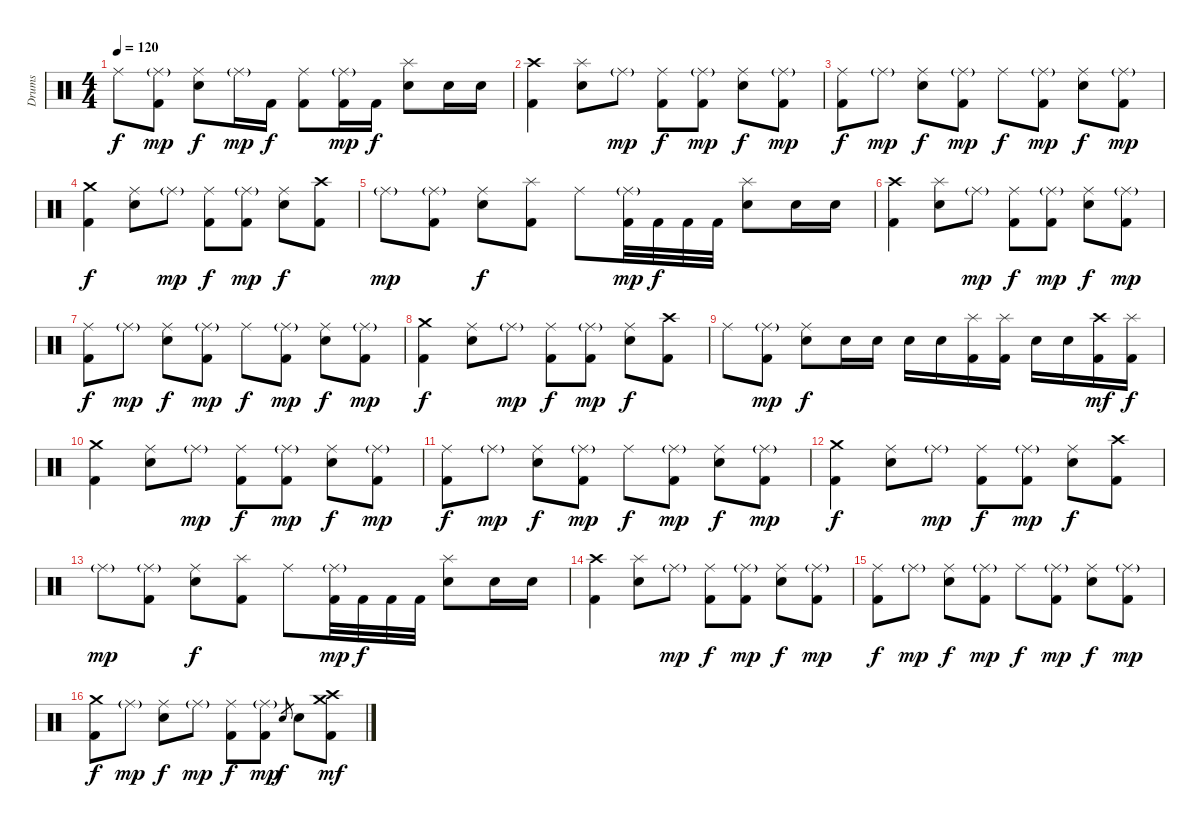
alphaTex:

\track ("Drums" "Drums") {instrument percussion}
\staff {score}
\articulation defaults
\ts (4 4)
\tempo 120
\clef neutral
\ks c "Ride (middle)".8{dy f}
("Ride (middle)"{g} "Kick (hit) 2").8{dy mp} ("Ride (middle)" "Snare (hit) 2").8{dy f} "Ride (middle)"{g}.16{dy mp} "Kick (hit) 2".16{dy f} ("Ride (middle)" "Kick (hit) 2").8 ("Ride (middle)"{g} "Kick (hit) 2").16{dy mp} "Kick (hit) 2".16{dy f} ("Splash (hit)" "Snare (hit) 2").8 "Snare (hit) 2".16 "Snare (hit) 2".16 |
("Crash high (hit)" "Kick (hit) 2").4 ("Splash (hit)" "Snare (hit) 2").8 "Ride (middle)"{g}.8{dy mp} ("Ride (middle)" "Kick (hit) 2").8{dy f} ("Ride (middle)"{g} "Kick (hit) 2").8{dy mp} ("Ride (middle)" "Snare (hit) 2").8{dy f} ("Ride (middle)"{g} "Kick (hit) 2").8{dy mp} |
("Ride (middle)" "Kick (hit) 2").8{dy f} "Ride (middle)"{g}.8{dy mp} ("Ride (middle)" "Snare (hit) 2").8{dy f} ("Ride (middle)"{g} "Kick (hit) 2").8{dy mp} "Ride (middle)".8{dy f} ("Ride (middle)"{g} "Kick (hit) 2").8{dy mp} ("Ride (middle)" "Snare (hit) 2").8{dy f} ("Ride (middle)"{g} "Kick (hit) 2").8{dy mp} |
("Crash medium (hit)" "Kick (hit) 2").4{dy f} ("Ride (middle)" "Snare (hit) 2").8 "Ride (middle)"{g}.8{dy mp} ("Ride (middle)" "Kick (hit) 2").8{dy f} ("Ride (middle)"{g} "Kick (hit) 2").8{dy mp} ("Ride (middle)" "Snare (hit) 2").8{dy f} ("Crash high (hit)" "Kick (hit) 2").8 |
"Ride (middle)"{g}.8{dy mp} ("Ride (middle)"{g} "Kick (hit) 2").8 ("Ride (middle)" "Snare (hit) 2").8{dy f} ("Splash (hit)" "Kick (hit) 2").8 "Ride (middle)".8 ("Ride (middle)"{g} "Kick (hit) 2").32{dy mp} "Kick (hit) 2".32{dy f} "Kick (hit) 2".32 "Kick (hit) 2".32 ("Splash (hit)" "Snare (hit) 2").8 "Snare (hit) 2".16 "Snare (hit) 2".16 |
("Crash high (hit)" "Kick (hit) 2").4 ("Splash (hit)" "Snare (hit) 2").8 "Ride (middle)"{g}.8{dy mp} ("Ride (middle)" "Kick (hit) 2").8{dy f} ("Ride (middle)"{g} "Kick (hit) 2").8{dy mp} ("Ride (middle)" "Snare (hit) 2").8{dy f} ("Ride (middle)"{g} "Kick (hit) 2").8{dy mp} |
("Ride (middle)" "Kick (hit) 2").8{dy f} "Ride (middle)"{g}.8{dy mp} ("Ride (middle)" "Snare (hit) 2").8{dy f} ("Ride (middle)"{g} "Kick (hit) 2").8{dy mp} "Ride (middle)".8{dy f} ("Ride (middle)"{g} "Kick (hit) 2").8{dy mp} ("Ride (middle)" "Snare (hit) 2").8{dy f} ("Ride (middle)"{g} "Kick (hit) 2").8{dy mp} |
("Crash medium (hit)" "Kick (hit) 2").4{dy f} ("Ride (middle)" "Snare (hit) 2").8 "Ride (middle)"{g}.8{dy mp} ("Ride (middle)" "Kick (hit) 2").8{dy f} ("Ride (middle)"{g} "Kick (hit) 2").8{dy mp} ("Ride (middle)" "Snare (hit) 2").8{dy f} ("Crash high (hit)" "Kick (hit) 2").8 |
"Ride (middle)".8 ("Ride (middle)"{g} "Kick (hit) 2").8{dy mp} ("Ride (middle)" "Snare (hit) 2").8{dy f} "Snare (hit) 2".16 "Snare (hit) 2".16 "Snare (hit) 2".16 "Snare (hit) 2".16 ("Splash (hit)" "Kick (hit) 2").16 ("Splash (hit)" "Kick (hit) 2").16 "Snare (hit) 2".16 "Snare (hit) 2".16 ("Crash high (hit)" "Kick (hit) 2").16{dy mf} ("Splash (hit)" "Kick (hit) 2").16{dy f} |
("Crash medium (hit)" "Kick (hit) 2").4 ("Ride (middle)" "Snare (hit) 2").8 "Ride (middle)"{g}.8{dy mp} ("Ride (middle)" "Kick (hit) 2").8{dy f} ("Ride (middle)"{g} "Kick (hit) 2").8{dy mp} ("Ride (middle)" "Snare (hit) 2").8{dy f} ("Ride (middle)"{g} "Kick (hit) 2").8{dy mp} |
("Ride (middle)" "Kick (hit) 2").8{dy f} "Ride (middle)"{g}.8{dy mp} ("Ride (middle)" "Snare (hit) 2").8{dy f} ("Ride (middle)"{g} "Kick (hit) 2").8{dy mp} "Ride (middle)".8{dy f} ("Ride (middle)"{g} "Kick (hit) 2").8{dy mp} ("Ride (middle)" "Snare (hit) 2").8{dy f} ("Ride (middle)"{g} "Kick (hit) 2").8{dy mp} |
("Crash medium (hit)" "Kick (hit) 2").4{dy f} ("Ride (middle)" "Snare (hit) 2").8 "Ride (middle)"{g}.8{dy mp} ("Ride (middle)" "Kick (hit) 2").8{dy f} ("Ride (middle)"{g} "Kick (hit) 2").8{dy mp} ("Ride (middle)" "Snare (hit) 2").8{dy f} ("Crash high (hit)" "Kick (hit) 2").8 |
"Ride (middle)"{g}.8{dy mp} ("Ride (middle)"{g} "Kick (hit) 2").8 ("Ride (middle)" "Snare (hit) 2").8{dy f} ("Splash (hit)" "Kick (hit) 2").8 "Ride (middle)".8 ("Ride (middle)"{g} "Kick (hit) 2").32{dy mp} "Kick (hit) 2".32{dy f} "Kick (hit) 2".32 "Kick (hit) 2".32 ("Splash (hit)" "Snare (hit) 2").8 "Snare (hit) 2".16 "Snare (hit) 2".16 |
("Crash high (hit)" "Kick (hit) 2").4 ("Splash (hit)" "Snare (hit) 2").8 "Ride (middle)"{g}.8{dy mp} ("Ride (middle)" "Kick (hit) 2").8{dy f} ("Ride (middle)"{g} "Kick (hit) 2").8{dy mp} ("Ride (middle)" "Snare (hit) 2").8{dy f} ("Ride (middle)"{g} "Kick (hit) 2").8{dy mp} |
("Ride (middle)" "Kick (hit) 2").8{dy f} "Ride (middle)"{g}.8{dy mp} ("Ride (middle)" "Snare (hit) 2").8{dy f} ("Ride (middle)"{g} "Kick (hit) 2").8{dy mp} "Ride (middle)".8{dy f} ("Ride (middle)"{g} "Kick (hit) 2").8{dy mp} ("Ride (middle)" "Snare (hit) 2").8{dy f} ("Ride (middle)"{g} "Kick (hit) 2").8{dy mp} |
("Crash medium (hit)" "Kick (hit) 2").8{dy f} "Ride (middle)"{g}.8{dy mp} ("Ride (middle)" "Snare (hit) 2").8{dy f} "Ride (middle)"{g}.8{dy mp} ("Ride (middle)" "Kick (hit) 2").8{dy f} ("Ride (middle)"{g} "Kick (hit) 2").8{dy mp} "Snare (hit) 2".8{gr dy f} "Snare (hit) 2".8 ("Crash medium (hit)" "Crash high (hit)" "Kick (hit) 2").8{dy mf}
